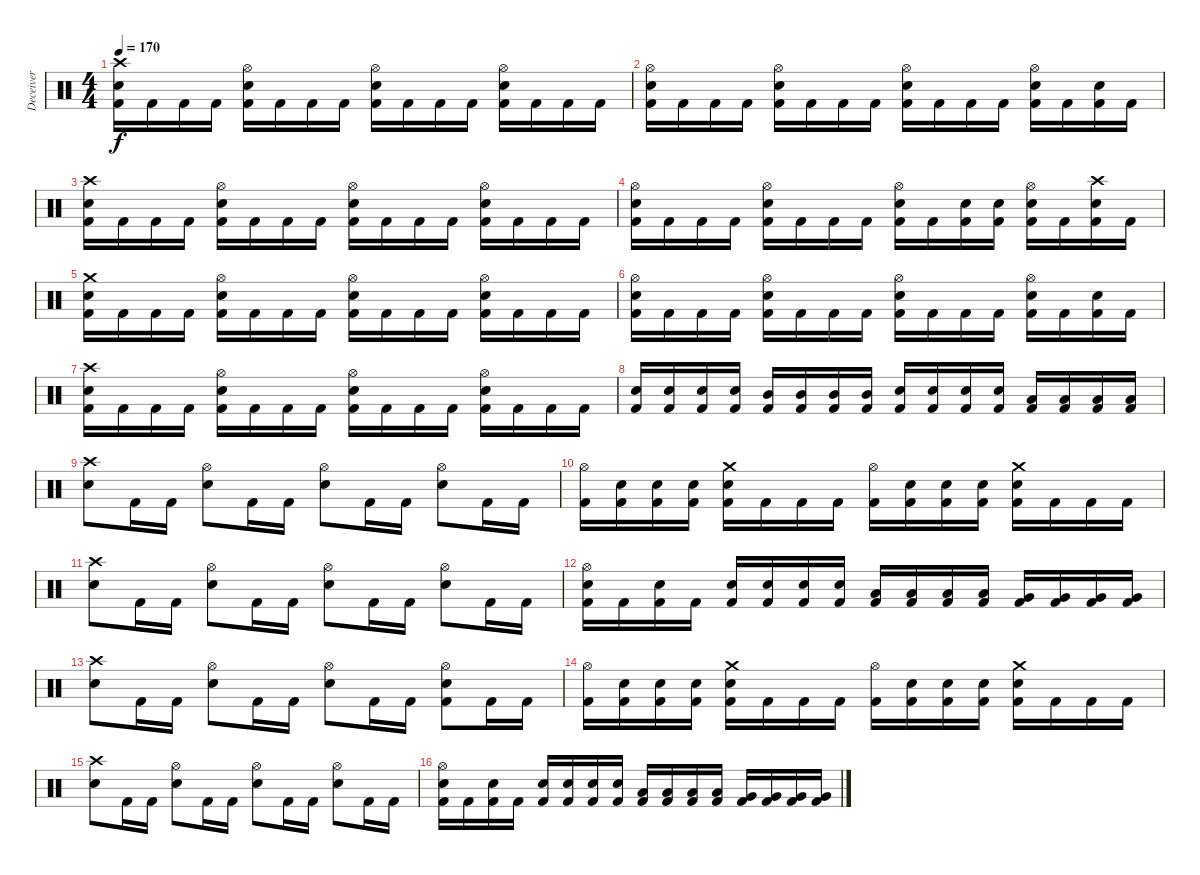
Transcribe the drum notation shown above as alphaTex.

\track ("Deceiver" "Deceiver") {instrument percussion}
\staff {score}
\articulation defaults
\ts (4 4)
\tempo 170
\clef neutral
\ks c
("Crash high (hit)" "Electric Snare (hit)" "Kick (hit) 2").16{dy f} "Kick (hit) 2".16 "Kick (hit) 2".16 "Kick (hit) 2".16 ("Hi-Hat (open)" "Electric Snare (hit)" "Kick (hit) 2").16 "Kick (hit) 2".16 "Kick (hit) 2".16 "Kick (hit) 2".16 ("Hi-Hat (open)" "Electric Snare (hit)" "Kick (hit) 2").16 "Kick (hit) 2".16 "Kick (hit) 2".16 "Kick (hit) 2".16 ("Hi-Hat (open)" "Electric Snare (hit)" "Kick (hit) 2").16 "Kick (hit) 2".16 "Kick (hit) 2".16 "Kick (hit) 2".16 |
("Hi-Hat (open)" "Electric Snare (hit)" "Kick (hit) 2").16 "Kick (hit) 2".16 "Kick (hit) 2".16 "Kick (hit) 2".16 ("Hi-Hat (open)" "Electric Snare (hit)" "Kick (hit) 2").16 "Kick (hit) 2".16 "Kick (hit) 2".16 "Kick (hit) 2".16 ("Hi-Hat (open)" "Electric Snare (hit)" "Kick (hit) 2").16 "Kick (hit) 2".16 "Kick (hit) 2".16 "Kick (hit) 2".16 ("Hi-Hat (open)" "Electric Snare (hit)" "Kick (hit) 2").16 "Kick (hit) 2".16 ("Electric Snare (hit)" "Kick (hit) 2").16 "Kick (hit) 2".16 |
("Crash high (hit)" "Electric Snare (hit)" "Kick (hit) 2").16 "Kick (hit) 2".16 "Kick (hit) 2".16 "Kick (hit) 2".16 ("Hi-Hat (open)" "Electric Snare (hit)" "Kick (hit) 2").16 "Kick (hit) 2".16 "Kick (hit) 2".16 "Kick (hit) 2".16 ("Hi-Hat (open)" "Electric Snare (hit)" "Kick (hit) 2").16 "Kick (hit) 2".16 "Kick (hit) 2".16 "Kick (hit) 2".16 ("Hi-Hat (open)" "Electric Snare (hit)" "Kick (hit) 2").16 "Kick (hit) 2".16 "Kick (hit) 2".16 "Kick (hit) 2".16 |
("Hi-Hat (open)" "Electric Snare (hit)" "Kick (hit) 2").16 "Kick (hit) 2".16 "Kick (hit) 2".16 "Kick (hit) 2".16 ("Hi-Hat (open)" "Electric Snare (hit)" "Kick (hit) 2").16 "Kick (hit) 2".16 "Kick (hit) 2".16 "Kick (hit) 2".16 ("Hi-Hat (open)" "Electric Snare (hit)" "Kick (hit) 2").16 "Kick (hit) 2".16 ("Electric Snare (hit)" "Kick (hit) 2").16 ("Electric Snare (hit)" "Kick (hit) 2").16 ("Hi-Hat (open)" "Electric Snare (hit)" "Kick (hit) 2").16 "Kick (hit) 2".16 ("Crash high (hit)" "Electric Snare (hit)" "Kick (hit) 2").16 "Kick (hit) 2".16 |
("Crash medium (hit)" "Electric Snare (hit)" "Kick (hit) 2").16 "Kick (hit) 2".16 "Kick (hit) 2".16 "Kick (hit) 2".16 ("Hi-Hat (open)" "Electric Snare (hit)" "Kick (hit) 2").16 "Kick (hit) 2".16 "Kick (hit) 2".16 "Kick (hit) 2".16 ("Hi-Hat (open)" "Electric Snare (hit)" "Kick (hit) 2").16 "Kick (hit) 2".16 "Kick (hit) 2".16 "Kick (hit) 2".16 ("Hi-Hat (open)" "Electric Snare (hit)" "Kick (hit) 2").16 "Kick (hit) 2".16 "Kick (hit) 2".16 "Kick (hit) 2".16 |
("Hi-Hat (open)" "Electric Snare (hit)" "Kick (hit) 2").16 "Kick (hit) 2".16 "Kick (hit) 2".16 "Kick (hit) 2".16 ("Hi-Hat (open)" "Electric Snare (hit)" "Kick (hit) 2").16 "Kick (hit) 2".16 "Kick (hit) 2".16 "Kick (hit) 2".16 ("Hi-Hat (open)" "Electric Snare (hit)" "Kick (hit) 2").16 "Kick (hit) 2".16 "Kick (hit) 2".16 "Kick (hit) 2".16 ("Hi-Hat (open)" "Electric Snare (hit)" "Kick (hit) 2").16 "Kick (hit) 2".16 ("Electric Snare (hit)" "Kick (hit) 2").16 "Kick (hit) 2".16 |
("Crash high (hit)" "Electric Snare (hit)" "Kick (hit) 2").16 "Kick (hit) 2".16 "Kick (hit) 2".16 "Kick (hit) 2".16 ("Hi-Hat (open)" "Electric Snare (hit)" "Kick (hit) 2").16 "Kick (hit) 2".16 "Kick (hit) 2".16 "Kick (hit) 2".16 ("Hi-Hat (open)" "Electric Snare (hit)" "Kick (hit) 2").16 "Kick (hit) 2".16 "Kick (hit) 2".16 "Kick (hit) 2".16 ("Hi-Hat (open)" "Electric Snare (hit)" "Kick (hit) 2").16 "Kick (hit) 2".16 "Kick (hit) 2".16 "Kick (hit) 2".16 |
("Electric Snare (hit)" "Kick (hit) 2").16 ("Electric Snare (hit)" "Kick (hit) 2").16 ("Electric Snare (hit)" "Kick (hit) 2").16 ("Electric Snare (hit)" "Kick (hit) 2").16 ("Mid Tom (hit)" "Kick (hit) 2").16 ("Mid Tom (hit)" "Kick (hit) 2").16 ("Mid Tom (hit)" "Kick (hit) 2").16 ("Mid Tom (hit)" "Kick (hit) 2").16 ("Electric Snare (hit)" "Kick (hit) 2").16 ("Electric Snare (hit)" "Kick (hit) 2").16 ("Electric Snare (hit)" "Kick (hit) 2").16 ("Electric Snare (hit)" "Kick (hit) 2").16 ("Low Tom (hit)" "Kick (hit) 2").16 ("Low Tom (hit)" "Kick (hit) 2").16 ("Low Tom (hit)" "Kick (hit) 2").16 ("Low Tom (hit)" "Kick (hit) 2").16 |
("Crash high (hit)" "Electric Snare (hit)").8 "Kick (hit) 2".16 "Kick (hit) 2".16 ("Hi-Hat (open)" "Electric Snare (hit)").8 "Kick (hit) 2".16 "Kick (hit) 2".16 ("Hi-Hat (open)" "Electric Snare (hit)").8 "Kick (hit) 2".16 "Kick (hit) 2".16 ("Hi-Hat (open)" "Electric Snare (hit)").8 "Kick (hit) 2".16 "Kick (hit) 2".16 |
("Hi-Hat (open)" "Kick (hit) 2").16 ("Electric Snare (hit)" "Kick (hit) 2").16 ("Electric Snare (hit)" "Kick (hit) 2").16 ("Electric Snare (hit)" "Kick (hit) 2").16 ("Crash medium (hit)" "Electric Snare (hit)" "Kick (hit) 2").16 "Kick (hit) 2".16 "Kick (hit) 2".16 "Kick (hit) 2".16 ("Hi-Hat (open)" "Kick (hit) 2").16 ("Electric Snare (hit)" "Kick (hit) 2").16 ("Electric Snare (hit)" "Kick (hit) 2").16 ("Electric Snare (hit)" "Kick (hit) 2").16 ("Crash medium (hit)" "Electric Snare (hit)" "Kick (hit) 2").16 "Kick (hit) 2".16 "Kick (hit) 2".16 "Kick (hit) 2".16 |
("Crash high (hit)" "Electric Snare (hit)").8 "Kick (hit) 2".16 "Kick (hit) 2".16 ("Hi-Hat (open)" "Electric Snare (hit)").8 "Kick (hit) 2".16 "Kick (hit) 2".16 ("Hi-Hat (open)" "Electric Snare (hit)").8 "Kick (hit) 2".16 "Kick (hit) 2".16 ("Hi-Hat (open)" "Electric Snare (hit)").8 "Kick (hit) 2".16 "Kick (hit) 2".16 |
("Hi-Hat (open)" "Electric Snare (hit)" "Kick (hit) 2").16 "Kick (hit) 2".16 ("Electric Snare (hit)" "Kick (hit) 2").16 "Kick (hit) 2".16 ("Electric Snare (hit)" "Kick (hit) 2").16 ("Electric Snare (hit)" "Kick (hit) 2").16 ("Electric Snare (hit)" "Kick (hit) 2").16 ("Electric Snare (hit)" "Kick (hit) 2").16 ("Low Tom (hit)" "Kick (hit) 2").16 ("Low Tom (hit)" "Kick (hit) 2").16 ("Low Tom (hit)" "Kick (hit) 2").16 ("Low Tom (hit)" "Kick (hit) 2").16 ("Very Low Tom (hit)" "Kick (hit) 2").16 ("Very Low Tom (hit)" "Kick (hit) 2").16 ("Very Low Tom (hit)" "Kick (hit) 2").16 ("Very Low Tom (hit)" "Kick (hit) 2").16 |
("Crash high (hit)" "Electric Snare (hit)").8 "Kick (hit) 2".16 "Kick (hit) 2".16 ("Hi-Hat (open)" "Electric Snare (hit)").8 "Kick (hit) 2".16 "Kick (hit) 2".16 ("Hi-Hat (open)" "Electric Snare (hit)").8 "Kick (hit) 2".16 "Kick (hit) 2".16 ("Hi-Hat (open)" "Electric Snare (hit)" "Kick (hit) 2").8 "Kick (hit) 2".16 "Kick (hit) 2".16 |
("Hi-Hat (open)" "Kick (hit) 2").16 ("Electric Snare (hit)" "Kick (hit) 2").16 ("Electric Snare (hit)" "Kick (hit) 2").16 ("Electric Snare (hit)" "Kick (hit) 2").16 ("Crash medium (hit)" "Electric Snare (hit)" "Kick (hit) 2").16 "Kick (hit) 2".16 "Kick (hit) 2".16 "Kick (hit) 2".16 ("Hi-Hat (open)" "Kick (hit) 2").16 ("Electric Snare (hit)" "Kick (hit) 2").16 ("Electric Snare (hit)" "Kick (hit) 2").16 ("Electric Snare (hit)" "Kick (hit) 2").16 ("Crash medium (hit)" "Electric Snare (hit)" "Kick (hit) 2").16 "Kick (hit) 2".16 "Kick (hit) 2".16 "Kick (hit) 2".16 |
("Crash high (hit)" "Electric Snare (hit)").8 "Kick (hit) 2".16 "Kick (hit) 2".16 ("Hi-Hat (open)" "Electric Snare (hit)").8 "Kick (hit) 2".16 "Kick (hit) 2".16 ("Hi-Hat (open)" "Electric Snare (hit)").8 "Kick (hit) 2".16 "Kick (hit) 2".16 ("Hi-Hat (open)" "Electric Snare (hit)").8 "Kick (hit) 2".16 "Kick (hit) 2".16 |
("Hi-Hat (open)" "Electric Snare (hit)" "Kick (hit) 2").16 "Kick (hit) 2".16 ("Electric Snare (hit)" "Kick (hit) 2").16 "Kick (hit) 2".16 ("Electric Snare (hit)" "Kick (hit) 2").16 ("Electric Snare (hit)" "Kick (hit) 2").16 ("Electric Snare (hit)" "Kick (hit) 2").16 ("Electric Snare (hit)" "Kick (hit) 2").16 ("Low Tom (hit)" "Kick (hit) 2").16 ("Low Tom (hit)" "Kick (hit) 2").16 ("Low Tom (hit)" "Kick (hit) 2").16 ("Low Tom (hit)" "Kick (hit) 2").16 ("Very Low Tom (hit)" "Kick (hit) 2").16 ("Very Low Tom (hit)" "Kick (hit) 2").16 ("Very Low Tom (hit)" "Kick (hit) 2").16 ("Very Low Tom (hit)" "Kick (hit) 2").16
